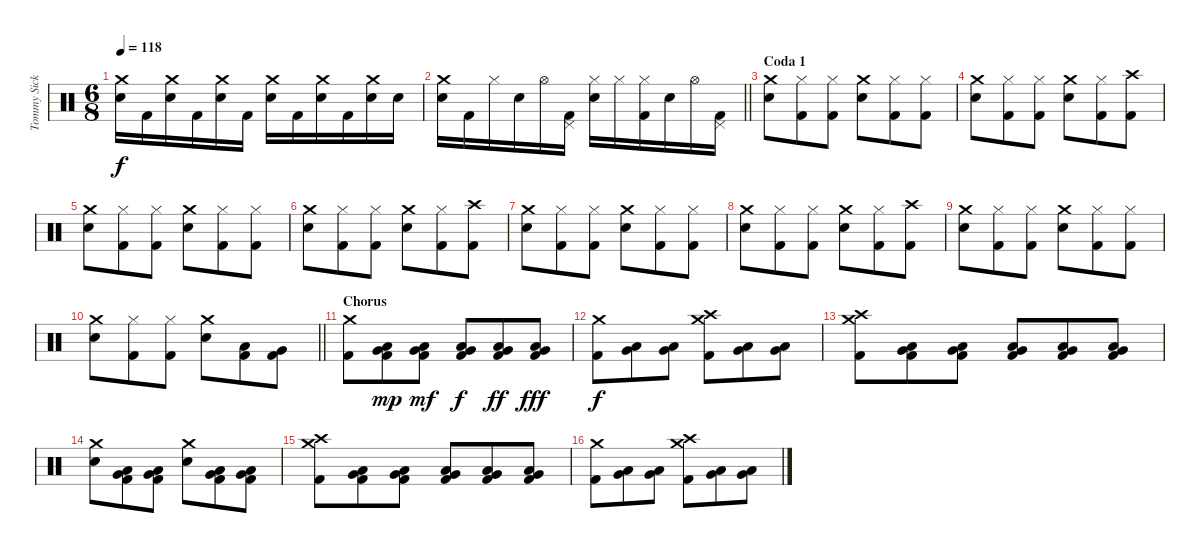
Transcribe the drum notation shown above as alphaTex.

\track ("Tommy Sickles" "Tommy Sick") {instrument percussion}
\staff {score}
\articulation defaults
\ts (6 8)
\tempo 118
\clef neutral
\ks c
("Crash medium (hit)" "Electric Snare (hit)").16{dy f} "Kick (hit) 2".16 ("Crash medium (hit)" "Electric Snare (hit)").16 "Kick (hit) 2".16 ("Crash medium (hit)" "Electric Snare (hit)").16 "Kick (hit) 2".16 ("Crash medium (hit)" "Electric Snare (hit)").16 "Kick (hit) 2".16 ("Crash medium (hit)" "Electric Snare (hit)").16 "Kick (hit) 2".16 ("Crash medium (hit)" "Electric Snare (hit)").16 "Electric Snare (hit)".16 |
\barLineRight lightlight
("Crash medium (hit)" "Electric Snare (hit)").16 "Kick (hit) 2".16 "Hi-Hat (closed)".16 "Electric Snare (hit)".16 "Hi-Hat (open)".16 ("Pedal Hi-Hat (hit)" "Kick (hit) 2").16 ("Hi-Hat (closed)" "Electric Snare (hit)").16 "Hi-Hat (closed)".16 ("Hi-Hat (closed)" "Kick (hit) 2").16 "Electric Snare (hit)".16 "Hi-Hat (open)".16 ("Pedal Hi-Hat (hit)" "Kick (hit) 2").16 |
\section ("" "Coda 1")
("Crash medium (hit)" "Electric Snare (hit)").8 ("Hi-Hat (closed)" "Kick (hit) 2").8 ("Hi-Hat (closed)" "Kick (hit) 2").8 ("Crash medium (hit)" "Electric Snare (hit)").8 ("Hi-Hat (closed)" "Kick (hit) 2").8 ("Hi-Hat (closed)" "Kick (hit) 2").8 |
("Crash medium (hit)" "Electric Snare (hit)").8 ("Hi-Hat (closed)" "Kick (hit) 2").8 ("Hi-Hat (closed)" "Kick (hit) 2").8 ("Crash medium (hit)" "Electric Snare (hit)").8 ("Hi-Hat (closed)" "Kick (hit) 2").8 ("Crash high (hit)" "Kick (hit) 2").8 |
("Crash medium (hit)" "Electric Snare (hit)").8 ("Hi-Hat (closed)" "Kick (hit) 2").8 ("Hi-Hat (closed)" "Kick (hit) 2").8 ("Crash medium (hit)" "Electric Snare (hit)").8 ("Hi-Hat (closed)" "Kick (hit) 2").8 ("Hi-Hat (closed)" "Kick (hit) 2").8 |
("Crash medium (hit)" "Electric Snare (hit)").8 ("Hi-Hat (closed)" "Kick (hit) 2").8 ("Hi-Hat (closed)" "Kick (hit) 2").8 ("Crash medium (hit)" "Electric Snare (hit)").8 ("Hi-Hat (closed)" "Kick (hit) 2").8 ("Crash high (hit)" "Kick (hit) 2").8 |
("Crash medium (hit)" "Electric Snare (hit)").8 ("Hi-Hat (closed)" "Kick (hit) 2").8 ("Hi-Hat (closed)" "Kick (hit) 2").8 ("Crash medium (hit)" "Electric Snare (hit)").8 ("Hi-Hat (closed)" "Kick (hit) 2").8 ("Hi-Hat (closed)" "Kick (hit) 2").8 |
("Crash medium (hit)" "Electric Snare (hit)").8 ("Hi-Hat (closed)" "Kick (hit) 2").8 ("Hi-Hat (closed)" "Kick (hit) 2").8 ("Crash medium (hit)" "Electric Snare (hit)").8 ("Hi-Hat (closed)" "Kick (hit) 2").8 ("Crash high (hit)" "Kick (hit) 2").8 |
("Crash medium (hit)" "Electric Snare (hit)").8 ("Hi-Hat (closed)" "Kick (hit) 2").8 ("Hi-Hat (closed)" "Kick (hit) 2").8 ("Crash medium (hit)" "Electric Snare (hit)").8 ("Hi-Hat (closed)" "Kick (hit) 2").8 ("Hi-Hat (closed)" "Kick (hit) 2").8 |
\barLineRight lightlight
("Crash medium (hit)" "Electric Snare (hit)").8 ("Hi-Hat (closed)" "Kick (hit) 2").8 ("Hi-Hat (closed)" "Kick (hit) 2").8 ("Crash medium (hit)" "Electric Snare (hit)").8 ("Low Tom (hit)" "Kick (hit) 2").8 ("Very Low Tom (hit)" "Kick (hit) 2").8 |
\section ("" "Chorus")
("Crash medium (hit)" "Kick (hit) 2").8 ("Low Tom (hit)" "Very Low Tom (hit)" "Kick (hit) 2").8{dy mp} ("Low Tom (hit)" "Very Low Tom (hit)" "Kick (hit) 2").8{dy mf} ("Low Tom (hit)" "Very Low Tom (hit)" "Kick (hit) 2").8{dy f} ("Low Tom (hit)" "Very Low Tom (hit)" "Kick (hit) 2").8{dy ff} ("Low Tom (hit)" "Very Low Tom (hit)" "Kick (hit) 2").8{dy fff} |
("Crash medium (hit)" "Kick (hit) 2").8{dy f} ("Low Tom (hit)" "Very Low Tom (hit)").8 ("Low Tom (hit)" "Very Low Tom (hit)").8 ("Crash high (hit)" "Crash medium (hit)" "Kick (hit) 2").8 ("Low Tom (hit)" "Very Low Tom (hit)").8 ("Low Tom (hit)" "Very Low Tom (hit)").8 |
("Crash high (hit)" "Crash medium (hit)" "Kick (hit) 2").8 ("Low Tom (hit)" "Very Low Tom (hit)" "Kick (hit) 2").8 ("Low Tom (hit)" "Very Low Tom (hit)" "Kick (hit) 2").8 ("Low Tom (hit)" "Very Low Tom (hit)" "Kick (hit) 2").8 ("Low Tom (hit)" "Very Low Tom (hit)" "Kick (hit) 2").8 ("Low Tom (hit)" "Very Low Tom (hit)" "Kick (hit) 2").8 |
("Crash medium (hit)" "Electric Snare (hit)").8 ("Low Tom (hit)" "Very Low Tom (hit)" "Kick (hit) 2").8 ("Low Tom (hit)" "Very Low Tom (hit)" "Kick (hit) 2").8 ("Crash medium (hit)" "Electric Snare (hit)").8 ("Low Tom (hit)" "Very Low Tom (hit)" "Kick (hit) 2").8 ("Low Tom (hit)" "Very Low Tom (hit)" "Kick (hit) 2").8 |
("Crash high (hit)" "Crash medium (hit)" "Kick (hit) 2").8 ("Low Tom (hit)" "Very Low Tom (hit)" "Kick (hit) 2").8 ("Low Tom (hit)" "Very Low Tom (hit)" "Kick (hit) 2").8 ("Low Tom (hit)" "Very Low Tom (hit)" "Kick (hit) 2").8 ("Low Tom (hit)" "Very Low Tom (hit)" "Kick (hit) 2").8 ("Low Tom (hit)" "Very Low Tom (hit)" "Kick (hit) 2").8 |
("Crash medium (hit)" "Kick (hit) 2").8 ("Low Tom (hit)" "Very Low Tom (hit)").8 ("Low Tom (hit)" "Very Low Tom (hit)").8 ("Crash high (hit)" "Crash medium (hit)" "Kick (hit) 2").8 ("Low Tom (hit)" "Very Low Tom (hit)").8 ("Low Tom (hit)" "Very Low Tom (hit)").8
